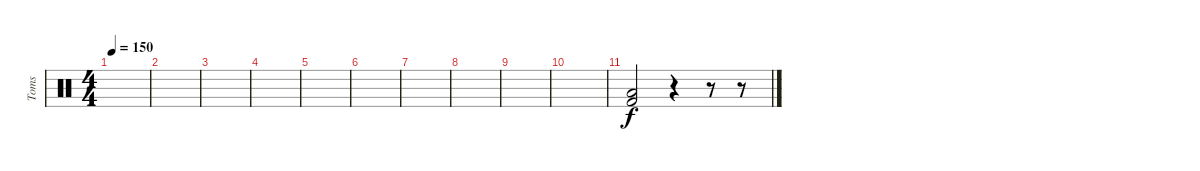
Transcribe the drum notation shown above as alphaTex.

\track ("Toms" "Toms") {instrument percussion}
\staff {score}
\articulation defaults
\ts (4 4)
\tempo 150
\clef neutral
\ks c
|
|
|
|
|
|
|
|
|
|
("Low Tom (hit)" "Kick (hit) 2").2 r.4 r.8 r.8
